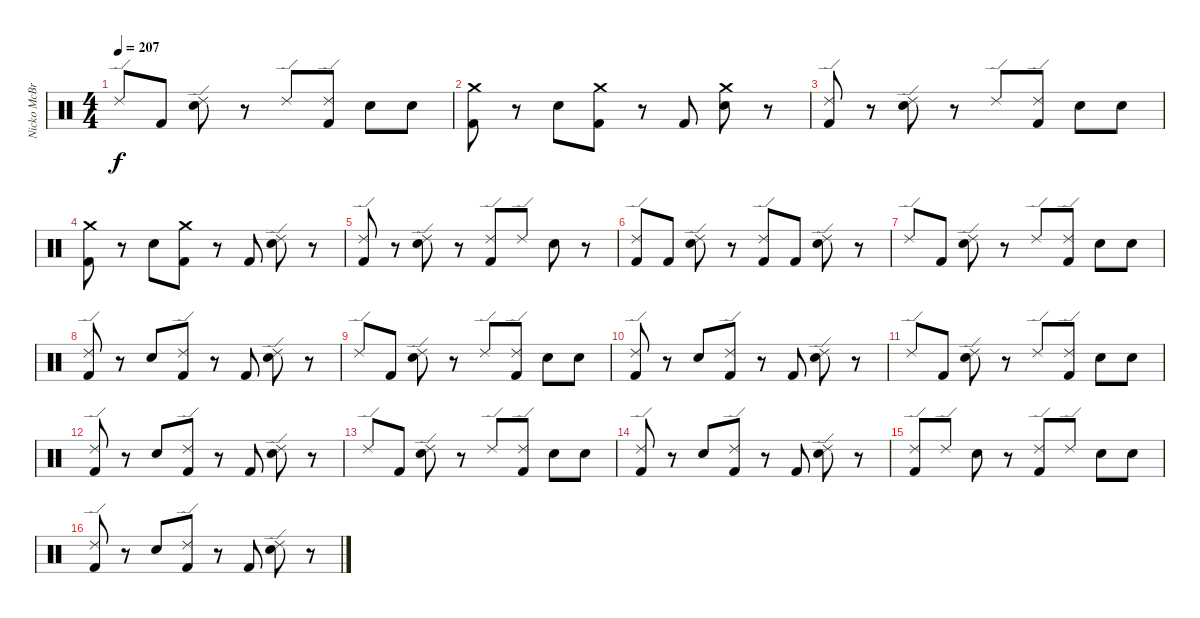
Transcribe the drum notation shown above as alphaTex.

\track ("Nicko McBrain" "Nicko McBr") {instrument percussion}
\staff {score}
\articulation defaults
\ts (4 4)
\tempo 207
\clef neutral
\ks c "Ride (edge) 2".8{dy f} "Kick (hit) 2".8
("Ride (edge) 2" "Snare (hit) 2").8 r.8 "Ride (edge) 2".8 ("Ride (edge) 2" "Kick (hit) 2").8 "Snare (hit) 2".8 "Snare (hit) 2".8 |
("Crash medium (hit)" "Kick (hit) 2").8 r.8 "Snare (hit) 2".8 ("Crash medium (hit)" "Kick (hit) 2").8 r.8 "Kick (hit) 2".8 ("Crash medium (hit)" "Snare (hit) 2").8 r.8 |
("Ride (edge) 2" "Kick (hit) 2").8 r.8 ("Ride (edge) 2" "Snare (hit) 2").8 r.8 "Ride (edge) 2".8 ("Ride (edge) 2" "Kick (hit) 2").8 "Snare (hit) 2".8 "Snare (hit) 2".8 |
("Crash medium (hit)" "Kick (hit) 2").8 r.8 "Snare (hit) 2".8 ("Crash medium (hit)" "Kick (hit) 2").8 r.8 "Kick (hit) 2".8 ("Ride (edge) 2" "Snare (hit) 2").8 r.8 |
("Ride (edge) 2" "Kick (hit) 2").8 r.8 ("Ride (edge) 2" "Snare (hit) 2").8 r.8 ("Ride (edge) 2" "Kick (hit) 2").8 "Ride (edge) 2".8 "Snare (hit) 2".8 r.8 |
("Ride (edge) 2" "Kick (hit) 2").8 "Kick (hit) 2".8 ("Ride (edge) 2" "Snare (hit) 2").8 r.8 ("Ride (edge) 2" "Kick (hit) 2").8 "Kick (hit) 2".8 ("Ride (edge) 2" "Snare (hit) 2").8 r.8 |
"Ride (edge) 2".8 "Kick (hit) 2".8 ("Ride (edge) 2" "Snare (hit) 2").8 r.8 "Ride (edge) 2".8 ("Ride (edge) 2" "Kick (hit) 2").8 "Snare (hit) 2".8 "Snare (hit) 2".8 |
("Ride (edge) 2" "Kick (hit) 2").8 r.8 "Snare (hit) 2".8 ("Ride (edge) 2" "Kick (hit) 2").8 r.8 "Kick (hit) 2".8 ("Ride (edge) 2" "Snare (hit) 2").8 r.8 |
"Ride (edge) 2".8 "Kick (hit) 2".8 ("Ride (edge) 2" "Snare (hit) 2").8 r.8 "Ride (edge) 2".8 ("Ride (edge) 2" "Kick (hit) 2").8 "Snare (hit) 2".8 "Snare (hit) 2".8 |
("Ride (edge) 2" "Kick (hit) 2").8 r.8 "Snare (hit) 2".8 ("Ride (edge) 2" "Kick (hit) 2").8 r.8 "Kick (hit) 2".8 ("Ride (edge) 2" "Snare (hit) 2").8 r.8 |
"Ride (edge) 2".8 "Kick (hit) 2".8 ("Ride (edge) 2" "Snare (hit) 2").8 r.8 "Ride (edge) 2".8 ("Ride (edge) 2" "Kick (hit) 2").8 "Snare (hit) 2".8 "Snare (hit) 2".8 |
("Ride (edge) 2" "Kick (hit) 2").8 r.8 "Snare (hit) 2".8 ("Ride (edge) 2" "Kick (hit) 2").8 r.8 "Kick (hit) 2".8 ("Ride (edge) 2" "Snare (hit) 2").8 r.8 |
"Ride (edge) 2".8 "Kick (hit) 2".8 ("Ride (edge) 2" "Snare (hit) 2").8 r.8 "Ride (edge) 2".8 ("Ride (edge) 2" "Kick (hit) 2").8 "Snare (hit) 2".8 "Snare (hit) 2".8 |
("Ride (edge) 2" "Kick (hit) 2").8 r.8 "Snare (hit) 2".8 ("Ride (edge) 2" "Kick (hit) 2").8 r.8 "Kick (hit) 2".8 ("Ride (edge) 2" "Snare (hit) 2").8 r.8 |
("Ride (edge) 2" "Kick (hit) 2").8 "Ride (edge) 2".8 "Snare (hit) 2".8 r.8 ("Ride (edge) 2" "Kick (hit) 2").8 "Ride (edge) 2".8 "Snare (hit) 2".8 "Snare (hit) 2".8 |
("Ride (edge) 2" "Kick (hit) 2").8 r.8 "Snare (hit) 2".8 ("Ride (edge) 2" "Kick (hit) 2").8 r.8 "Kick (hit) 2".8 ("Ride (edge) 2" "Snare (hit) 2").8 r.8
